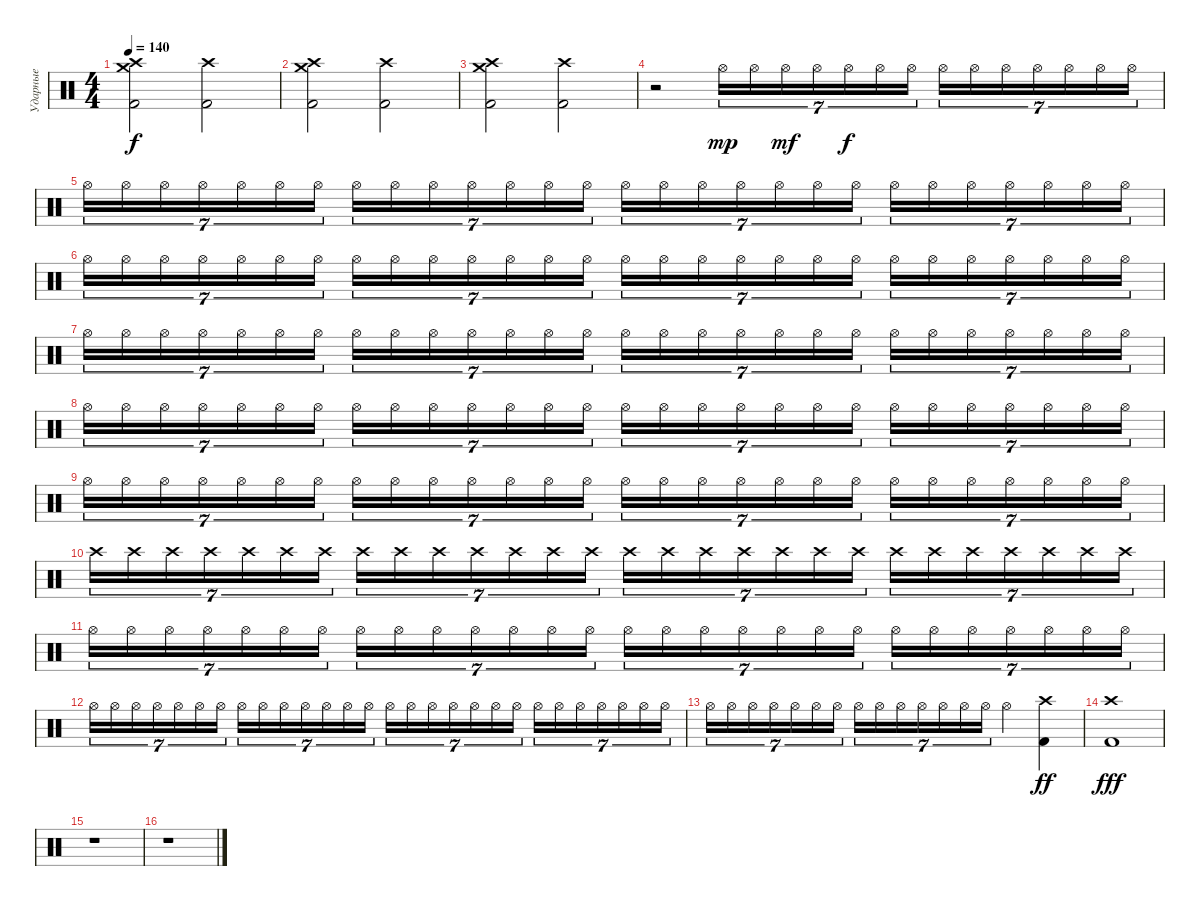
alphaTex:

\track ("Ударные" "Ударные") {instrument percussion}
\staff
\articulation defaults
\ts (4 4)
\tempo 140
\clef neutral
\ks c
("Kick (hit) 2" "Crash medium (hit)" "Crash high (hit)").2{dy f} ("Kick (hit) 2" "Crash high (hit)").2 |
("Kick (hit) 2" "Crash medium (hit)" "Crash high (hit)").2 ("Kick (hit) 2" "Crash high (hit)").2 |
("Kick (hit) 2" "Crash medium (hit)" "Crash high (hit)").2 ("Kick (hit) 2" "Crash high (hit)").2 |
r.2 "Hi-Hat (open)".16{tu (7 4) dy mp} "Hi-Hat (open)".16{tu (7 4)} "Hi-Hat (open)".16{tu (7 4) dy mf} "Hi-Hat (open)".16{tu (7 4)} "Hi-Hat (open)".16{tu (7 4) dy f} "Hi-Hat (open)".16{tu (7 4)} "Hi-Hat (open)".16{tu (7 4)} "Hi-Hat (open)".16{tu (7 4)} "Hi-Hat (open)".16{tu (7 4)} "Hi-Hat (open)".16{tu (7 4)} "Hi-Hat (open)".16{tu (7 4)} "Hi-Hat (open)".16{tu (7 4)} "Hi-Hat (open)".16{tu (7 4)} "Hi-Hat (open)".16{tu (7 4)} |
"Hi-Hat (open)".16{tu (7 4)} "Hi-Hat (open)".16{tu (7 4)} "Hi-Hat (open)".16{tu (7 4)} "Hi-Hat (open)".16{tu (7 4)} "Hi-Hat (open)".16{tu (7 4)} "Hi-Hat (open)".16{tu (7 4)} "Hi-Hat (open)".16{tu (7 4)} "Hi-Hat (open)".16{tu (7 4)} "Hi-Hat (open)".16{tu (7 4)} "Hi-Hat (open)".16{tu (7 4)} "Hi-Hat (open)".16{tu (7 4)} "Hi-Hat (open)".16{tu (7 4)} "Hi-Hat (open)".16{tu (7 4)} "Hi-Hat (open)".16{tu (7 4)} "Hi-Hat (open)".16{tu (7 4)} "Hi-Hat (open)".16{tu (7 4)} "Hi-Hat (open)".16{tu (7 4)} "Hi-Hat (open)".16{tu (7 4)} "Hi-Hat (open)".16{tu (7 4)} "Hi-Hat (open)".16{tu (7 4)} "Hi-Hat (open)".16{tu (7 4)} "Hi-Hat (open)".16{tu (7 4)} "Hi-Hat (open)".16{tu (7 4)} "Hi-Hat (open)".16{tu (7 4)} "Hi-Hat (open)".16{tu (7 4)} "Hi-Hat (open)".16{tu (7 4)} "Hi-Hat (open)".16{tu (7 4)} "Hi-Hat (open)".16{tu (7 4)} |
"Hi-Hat (open)".16{tu (7 4)} "Hi-Hat (open)".16{tu (7 4)} "Hi-Hat (open)".16{tu (7 4)} "Hi-Hat (open)".16{tu (7 4)} "Hi-Hat (open)".16{tu (7 4)} "Hi-Hat (open)".16{tu (7 4)} "Hi-Hat (open)".16{tu (7 4)} "Hi-Hat (open)".16{tu (7 4)} "Hi-Hat (open)".16{tu (7 4)} "Hi-Hat (open)".16{tu (7 4)} "Hi-Hat (open)".16{tu (7 4)} "Hi-Hat (open)".16{tu (7 4)} "Hi-Hat (open)".16{tu (7 4)} "Hi-Hat (open)".16{tu (7 4)} "Hi-Hat (open)".16{tu (7 4)} "Hi-Hat (open)".16{tu (7 4)} "Hi-Hat (open)".16{tu (7 4)} "Hi-Hat (open)".16{tu (7 4)} "Hi-Hat (open)".16{tu (7 4)} "Hi-Hat (open)".16{tu (7 4)} "Hi-Hat (open)".16{tu (7 4)} "Hi-Hat (open)".16{tu (7 4)} "Hi-Hat (open)".16{tu (7 4)} "Hi-Hat (open)".16{tu (7 4)} "Hi-Hat (open)".16{tu (7 4)} "Hi-Hat (open)".16{tu (7 4)} "Hi-Hat (open)".16{tu (7 4)} "Hi-Hat (open)".16{tu (7 4)} |
"Hi-Hat (open)".16{tu (7 4)} "Hi-Hat (open)".16{tu (7 4)} "Hi-Hat (open)".16{tu (7 4)} "Hi-Hat (open)".16{tu (7 4)} "Hi-Hat (open)".16{tu (7 4)} "Hi-Hat (open)".16{tu (7 4)} "Hi-Hat (open)".16{tu (7 4)} "Hi-Hat (open)".16{tu (7 4)} "Hi-Hat (open)".16{tu (7 4)} "Hi-Hat (open)".16{tu (7 4)} "Hi-Hat (open)".16{tu (7 4)} "Hi-Hat (open)".16{tu (7 4)} "Hi-Hat (open)".16{tu (7 4)} "Hi-Hat (open)".16{tu (7 4)} "Hi-Hat (open)".16{tu (7 4)} "Hi-Hat (open)".16{tu (7 4)} "Hi-Hat (open)".16{tu (7 4)} "Hi-Hat (open)".16{tu (7 4)} "Hi-Hat (open)".16{tu (7 4)} "Hi-Hat (open)".16{tu (7 4)} "Hi-Hat (open)".16{tu (7 4)} "Hi-Hat (open)".16{tu (7 4)} "Hi-Hat (open)".16{tu (7 4)} "Hi-Hat (open)".16{tu (7 4)} "Hi-Hat (open)".16{tu (7 4)} "Hi-Hat (open)".16{tu (7 4)} "Hi-Hat (open)".16{tu (7 4)} "Hi-Hat (open)".16{tu (7 4)} |
"Hi-Hat (open)".16{tu (7 4)} "Hi-Hat (open)".16{tu (7 4)} "Hi-Hat (open)".16{tu (7 4)} "Hi-Hat (open)".16{tu (7 4)} "Hi-Hat (open)".16{tu (7 4)} "Hi-Hat (open)".16{tu (7 4)} "Hi-Hat (open)".16{tu (7 4)} "Hi-Hat (open)".16{tu (7 4)} "Hi-Hat (open)".16{tu (7 4)} "Hi-Hat (open)".16{tu (7 4)} "Hi-Hat (open)".16{tu (7 4)} "Hi-Hat (open)".16{tu (7 4)} "Hi-Hat (open)".16{tu (7 4)} "Hi-Hat (open)".16{tu (7 4)} "Hi-Hat (open)".16{tu (7 4)} "Hi-Hat (open)".16{tu (7 4)} "Hi-Hat (open)".16{tu (7 4)} "Hi-Hat (open)".16{tu (7 4)} "Hi-Hat (open)".16{tu (7 4)} "Hi-Hat (open)".16{tu (7 4)} "Hi-Hat (open)".16{tu (7 4)} "Hi-Hat (open)".16{tu (7 4)} "Hi-Hat (open)".16{tu (7 4)} "Hi-Hat (open)".16{tu (7 4)} "Hi-Hat (open)".16{tu (7 4)} "Hi-Hat (open)".16{tu (7 4)} "Hi-Hat (open)".16{tu (7 4)} "Hi-Hat (open)".16{tu (7 4)} |
"Hi-Hat (open)".16{tu (7 4)} "Hi-Hat (open)".16{tu (7 4)} "Hi-Hat (open)".16{tu (7 4)} "Hi-Hat (open)".16{tu (7 4)} "Hi-Hat (open)".16{tu (7 4)} "Hi-Hat (open)".16{tu (7 4)} "Hi-Hat (open)".16{tu (7 4)} "Hi-Hat (open)".16{tu (7 4)} "Hi-Hat (open)".16{tu (7 4)} "Hi-Hat (open)".16{tu (7 4)} "Hi-Hat (open)".16{tu (7 4)} "Hi-Hat (open)".16{tu (7 4)} "Hi-Hat (open)".16{tu (7 4)} "Hi-Hat (open)".16{tu (7 4)} "Hi-Hat (open)".16{tu (7 4)} "Hi-Hat (open)".16{tu (7 4)} "Hi-Hat (open)".16{tu (7 4)} "Hi-Hat (open)".16{tu (7 4)} "Hi-Hat (open)".16{tu (7 4)} "Hi-Hat (open)".16{tu (7 4)} "Hi-Hat (open)".16{tu (7 4)} "Hi-Hat (open)".16{tu (7 4)} "Hi-Hat (open)".16{tu (7 4)} "Hi-Hat (open)".16{tu (7 4)} "Hi-Hat (open)".16{tu (7 4)} "Hi-Hat (open)".16{tu (7 4)} "Hi-Hat (open)".16{tu (7 4)} "Hi-Hat (open)".16{tu (7 4)} |
"Crash high (hit)".16{tu (7 4)} "Crash high (hit)".16{tu (7 4)} "Crash high (hit)".16{tu (7 4)} "Crash high (hit)".16{tu (7 4)} "Crash high (hit)".16{tu (7 4)} "Crash high (hit)".16{tu (7 4)} "Crash high (hit)".16{tu (7 4)} "Crash high (hit)".16{tu (7 4)} "Crash high (hit)".16{tu (7 4)} "Crash high (hit)".16{tu (7 4)} "Crash high (hit)".16{tu (7 4)} "Crash high (hit)".16{tu (7 4)} "Crash high (hit)".16{tu (7 4)} "Crash high (hit)".16{tu (7 4)} "Crash high (hit)".16{tu (7 4)} "Crash high (hit)".16{tu (7 4)} "Crash high (hit)".16{tu (7 4)} "Crash high (hit)".16{tu (7 4)} "Crash high (hit)".16{tu (7 4)} "Crash high (hit)".16{tu (7 4)} "Crash high (hit)".16{tu (7 4)} "Crash high (hit)".16{tu (7 4)} "Crash high (hit)".16{tu (7 4)} "Crash high (hit)".16{tu (7 4)} "Crash high (hit)".16{tu (7 4)} "Crash high (hit)".16{tu (7 4)} "Crash high (hit)".16{tu (7 4)} "Crash high (hit)".16{tu (7 4)} |
"Hi-Hat (open)".16{tu (7 4)} "Hi-Hat (open)".16{tu (7 4)} "Hi-Hat (open)".16{tu (7 4)} "Hi-Hat (open)".16{tu (7 4)} "Hi-Hat (open)".16{tu (7 4)} "Hi-Hat (open)".16{tu (7 4)} "Hi-Hat (open)".16{tu (7 4)} "Hi-Hat (open)".16{tu (7 4)} "Hi-Hat (open)".16{tu (7 4)} "Hi-Hat (open)".16{tu (7 4)} "Hi-Hat (open)".16{tu (7 4)} "Hi-Hat (open)".16{tu (7 4)} "Hi-Hat (open)".16{tu (7 4)} "Hi-Hat (open)".16{tu (7 4)} "Hi-Hat (open)".16{tu (7 4)} "Hi-Hat (open)".16{tu (7 4)} "Hi-Hat (open)".16{tu (7 4)} "Hi-Hat (open)".16{tu (7 4)} "Hi-Hat (open)".16{tu (7 4)} "Hi-Hat (open)".16{tu (7 4)} "Hi-Hat (open)".16{tu (7 4)} "Hi-Hat (open)".16{tu (7 4)} "Hi-Hat (open)".16{tu (7 4)} "Hi-Hat (open)".16{tu (7 4)} "Hi-Hat (open)".16{tu (7 4)} "Hi-Hat (open)".16{tu (7 4)} "Hi-Hat (open)".16{tu (7 4)} "Hi-Hat (open)".16{tu (7 4)} |
"Hi-Hat (open)".16{tu (7 4)} "Hi-Hat (open)".16{tu (7 4)} "Hi-Hat (open)".16{tu (7 4)} "Hi-Hat (open)".16{tu (7 4)} "Hi-Hat (open)".16{tu (7 4)} "Hi-Hat (open)".16{tu (7 4)} "Hi-Hat (open)".16{tu (7 4)} "Hi-Hat (open)".16{tu (7 4)} "Hi-Hat (open)".16{tu (7 4)} "Hi-Hat (open)".16{tu (7 4)} "Hi-Hat (open)".16{tu (7 4)} "Hi-Hat (open)".16{tu (7 4)} "Hi-Hat (open)".16{tu (7 4)} "Hi-Hat (open)".16{tu (7 4)} "Hi-Hat (open)".16{tu (7 4)} "Hi-Hat (open)".16{tu (7 4)} "Hi-Hat (open)".16{tu (7 4)} "Hi-Hat (open)".16{tu (7 4)} "Hi-Hat (open)".16{tu (7 4)} "Hi-Hat (open)".16{tu (7 4)} "Hi-Hat (open)".16{tu (7 4)} "Hi-Hat (open)".16{tu (7 4)} "Hi-Hat (open)".16{tu (7 4)} "Hi-Hat (open)".16{tu (7 4)} "Hi-Hat (open)".16{tu (7 4)} "Hi-Hat (open)".16{tu (7 4)} "Hi-Hat (open)".16{tu (7 4)} "Hi-Hat (open)".16{tu (7 4)} |
"Hi-Hat (open)".16{tu (7 4)} "Hi-Hat (open)".16{tu (7 4)} "Hi-Hat (open)".16{tu (7 4)} "Hi-Hat (open)".16{tu (7 4)} "Hi-Hat (open)".16{tu (7 4)} "Hi-Hat (open)".16{tu (7 4)} "Hi-Hat (open)".16{tu (7 4)} "Hi-Hat (open)".16{tu (7 4)} "Hi-Hat (open)".16{tu (7 4)} "Hi-Hat (open)".16{tu (7 4)} "Hi-Hat (open)".16{tu (7 4)} "Hi-Hat (open)".16{tu (7 4)} "Hi-Hat (open)".16{tu (7 4)} "Hi-Hat (open)".16{tu (7 4)} "Hi-Hat (open)".4 ("Kick (hit) 2" "Crash high (hit)").4{dy ff} |
("Kick (hit) 2" "Crash high (hit)").1{dy fff} |
r.1 |
r.1
